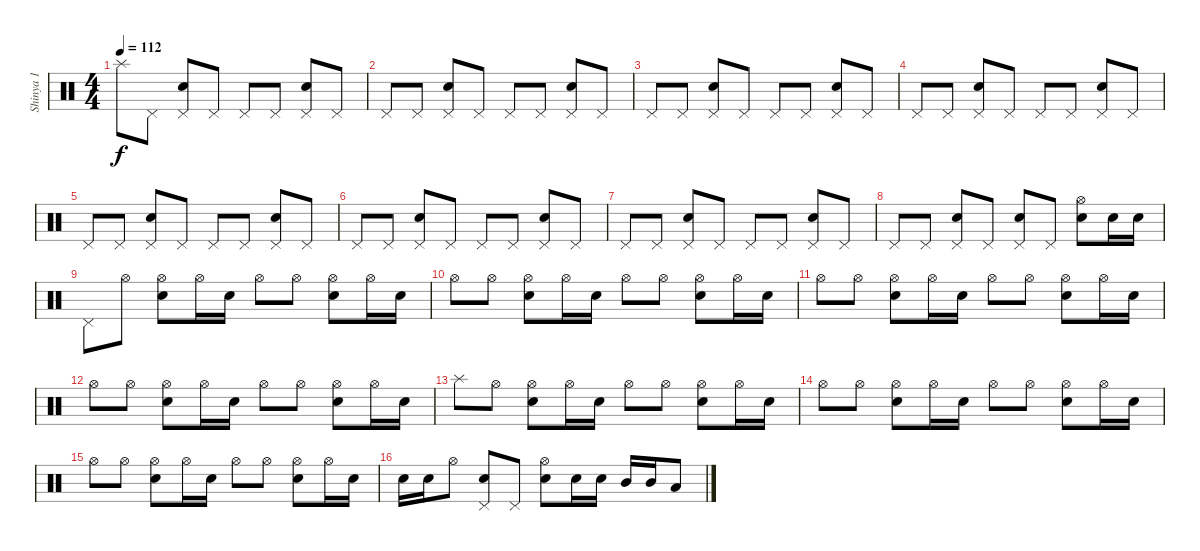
\track ("Shinya 1" "Shinya 1") {instrument percussion}
\staff {score}
\articulation defaults
\ts (4 4)
\tempo 112
\clef neutral
\ks c "Splash (hit)".8{dy f} "Pedal Hi-Hat (hit)".8
("Pedal Hi-Hat (hit)" "Snare (hit) 2").8 "Pedal Hi-Hat (hit)".8 "Pedal Hi-Hat (hit)".8 "Pedal Hi-Hat (hit)".8 ("Pedal Hi-Hat (hit)" "Snare (hit) 2").8 "Pedal Hi-Hat (hit)".8 |
"Pedal Hi-Hat (hit)".8 "Pedal Hi-Hat (hit)".8 ("Pedal Hi-Hat (hit)" "Snare (hit) 2").8 "Pedal Hi-Hat (hit)".8 "Pedal Hi-Hat (hit)".8 "Pedal Hi-Hat (hit)".8 ("Pedal Hi-Hat (hit)" "Snare (hit) 2").8 "Pedal Hi-Hat (hit)".8 |
"Pedal Hi-Hat (hit)".8 "Pedal Hi-Hat (hit)".8 ("Pedal Hi-Hat (hit)" "Snare (hit) 2").8 "Pedal Hi-Hat (hit)".8 "Pedal Hi-Hat (hit)".8 "Pedal Hi-Hat (hit)".8 ("Pedal Hi-Hat (hit)" "Snare (hit) 2").8 "Pedal Hi-Hat (hit)".8 |
"Pedal Hi-Hat (hit)".8 "Pedal Hi-Hat (hit)".8 ("Pedal Hi-Hat (hit)" "Snare (hit) 2").8 "Pedal Hi-Hat (hit)".8 "Pedal Hi-Hat (hit)".8 "Pedal Hi-Hat (hit)".8 ("Pedal Hi-Hat (hit)" "Snare (hit) 2").8 "Pedal Hi-Hat (hit)".8 |
"Pedal Hi-Hat (hit)".8 "Pedal Hi-Hat (hit)".8 ("Pedal Hi-Hat (hit)" "Snare (hit) 2").8 "Pedal Hi-Hat (hit)".8 "Pedal Hi-Hat (hit)".8 "Pedal Hi-Hat (hit)".8 ("Pedal Hi-Hat (hit)" "Snare (hit) 2").8 "Pedal Hi-Hat (hit)".8 |
"Pedal Hi-Hat (hit)".8 "Pedal Hi-Hat (hit)".8 ("Pedal Hi-Hat (hit)" "Snare (hit) 2").8 "Pedal Hi-Hat (hit)".8 "Pedal Hi-Hat (hit)".8 "Pedal Hi-Hat (hit)".8 ("Pedal Hi-Hat (hit)" "Snare (hit) 2").8 "Pedal Hi-Hat (hit)".8 |
"Pedal Hi-Hat (hit)".8 "Pedal Hi-Hat (hit)".8 ("Pedal Hi-Hat (hit)" "Snare (hit) 2").8 "Pedal Hi-Hat (hit)".8 "Pedal Hi-Hat (hit)".8 "Pedal Hi-Hat (hit)".8 ("Pedal Hi-Hat (hit)" "Snare (hit) 2").8 "Pedal Hi-Hat (hit)".8 |
"Pedal Hi-Hat (hit)".8 "Pedal Hi-Hat (hit)".8 ("Pedal Hi-Hat (hit)" "Snare (hit) 2").8 "Pedal Hi-Hat (hit)".8 ("Pedal Hi-Hat (hit)" "Snare (hit) 2").8 "Pedal Hi-Hat (hit)".8 ("Hi-Hat (open)" "Snare (hit) 2").8 "Snare (hit) 2".16 "Snare (hit) 2".16 |
"Pedal Hi-Hat (hit)".8 "Hi-Hat (open)".8 ("Hi-Hat (open)" "Snare (hit) 2").8 "Hi-Hat (open)".16 "Snare (hit) 2".16 "Hi-Hat (open)".8 "Hi-Hat (open)".8 ("Hi-Hat (open)" "Snare (hit) 2").8 "Hi-Hat (open)".16 "Snare (hit) 2".16 |
"Hi-Hat (open)".8 "Hi-Hat (open)".8 ("Hi-Hat (open)" "Snare (hit) 2").8 "Hi-Hat (open)".16 "Snare (hit) 2".16 "Hi-Hat (open)".8 "Hi-Hat (open)".8 ("Hi-Hat (open)" "Snare (hit) 2").8 "Hi-Hat (open)".16 "Snare (hit) 2".16 |
"Hi-Hat (open)".8 "Hi-Hat (open)".8 ("Hi-Hat (open)" "Snare (hit) 2").8 "Hi-Hat (open)".16 "Snare (hit) 2".16 "Hi-Hat (open)".8 "Hi-Hat (open)".8 ("Hi-Hat (open)" "Snare (hit) 2").8 "Hi-Hat (open)".16 "Snare (hit) 2".16 |
"Hi-Hat (open)".8 "Hi-Hat (open)".8 ("Hi-Hat (open)" "Snare (hit) 2").8 "Hi-Hat (open)".16 "Snare (hit) 2".16 "Hi-Hat (open)".8 "Hi-Hat (open)".8 ("Hi-Hat (open)" "Snare (hit) 2").8 "Hi-Hat (open)".16 "Snare (hit) 2".16 |
"Splash (hit)".8 "Hi-Hat (open)".8 ("Hi-Hat (open)" "Snare (hit) 2").8 "Hi-Hat (open)".16 "Snare (hit) 2".16 "Hi-Hat (open)".8 "Hi-Hat (open)".8 ("Hi-Hat (open)" "Snare (hit) 2").8 "Hi-Hat (open)".16 "Snare (hit) 2".16 |
"Hi-Hat (open)".8 "Hi-Hat (open)".8 ("Hi-Hat (open)" "Snare (hit) 2").8 "Hi-Hat (open)".16 "Snare (hit) 2".16 "Hi-Hat (open)".8 "Hi-Hat (open)".8 ("Hi-Hat (open)" "Snare (hit) 2").8 "Hi-Hat (open)".16 "Snare (hit) 2".16 |
"Hi-Hat (open)".8 "Hi-Hat (open)".8 ("Hi-Hat (open)" "Snare (hit) 2").8 "Hi-Hat (open)".16 "Snare (hit) 2".16 "Hi-Hat (open)".8 "Hi-Hat (open)".8 ("Hi-Hat (open)" "Snare (hit) 2").8 "Hi-Hat (open)".16 "Snare (hit) 2".16 |
"Snare (hit) 2".16 "Snare (hit) 2".16 "Hi-Hat (open)".8 ("Pedal Hi-Hat (hit)" "Snare (hit) 2").8 "Pedal Hi-Hat (hit)".8 ("Hi-Hat (open)" "Snare (hit) 2").8 "Snare (hit) 2".16 "Snare (hit) 2".16 "Mid Tom (hit)".16 "Mid Tom (hit)".16 "Low Floor Tom (hit)".8
